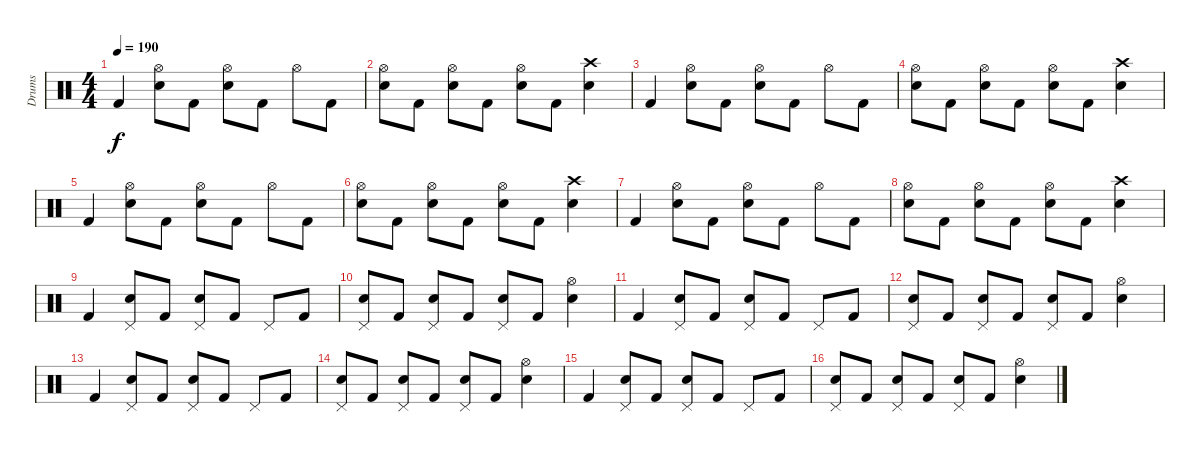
\track ("Drums" "Drums") {instrument percussion}
\staff {score}
\articulation defaults
\ts (4 4)
\tempo 190
\clef neutral
\ks c "Kick (hit) 2".4{dy f}
("Hi-Hat (open)" "Snare (hit) 2").8 "Kick (hit) 2".8 ("Hi-Hat (open)" "Snare (hit) 2").8 "Kick (hit) 2".8 "Hi-Hat (open)".8 "Kick (hit) 2".8 |
("Hi-Hat (open)" "Snare (hit) 2").8 "Kick (hit) 2".8 ("Hi-Hat (open)" "Snare (hit) 2").8 "Kick (hit) 2".8 ("Hi-Hat (open)" "Snare (hit) 2").8 "Kick (hit) 2".8 ("Crash high (hit)" "Snare (hit) 2").4 |
"Kick (hit) 2".4 ("Hi-Hat (open)" "Snare (hit) 2").8 "Kick (hit) 2".8 ("Hi-Hat (open)" "Snare (hit) 2").8 "Kick (hit) 2".8 "Hi-Hat (open)".8 "Kick (hit) 2".8 |
("Hi-Hat (open)" "Snare (hit) 2").8 "Kick (hit) 2".8 ("Hi-Hat (open)" "Snare (hit) 2").8 "Kick (hit) 2".8 ("Hi-Hat (open)" "Snare (hit) 2").8 "Kick (hit) 2".8 ("Crash high (hit)" "Snare (hit) 2").4 |
"Kick (hit) 2".4 ("Hi-Hat (open)" "Snare (hit) 2").8 "Kick (hit) 2".8 ("Hi-Hat (open)" "Snare (hit) 2").8 "Kick (hit) 2".8 "Hi-Hat (open)".8 "Kick (hit) 2".8 |
("Hi-Hat (open)" "Snare (hit) 2").8 "Kick (hit) 2".8 ("Hi-Hat (open)" "Snare (hit) 2").8 "Kick (hit) 2".8 ("Hi-Hat (open)" "Snare (hit) 2").8 "Kick (hit) 2".8 ("Crash high (hit)" "Snare (hit) 2").4 |
"Kick (hit) 2".4 ("Hi-Hat (open)" "Snare (hit) 2").8 "Kick (hit) 2".8 ("Hi-Hat (open)" "Snare (hit) 2").8 "Kick (hit) 2".8 "Hi-Hat (open)".8 "Kick (hit) 2".8 |
("Hi-Hat (open)" "Snare (hit) 2").8 "Kick (hit) 2".8 ("Hi-Hat (open)" "Snare (hit) 2").8 "Kick (hit) 2".8 ("Hi-Hat (open)" "Snare (hit) 2").8 "Kick (hit) 2".8 ("Crash high (hit)" "Snare (hit) 2").4 |
"Kick (hit) 2".4 ("Pedal Hi-Hat (hit)" "Snare (hit) 2").8 "Kick (hit) 2".8 ("Pedal Hi-Hat (hit)" "Snare (hit) 2").8 "Kick (hit) 2".8 "Pedal Hi-Hat (hit)".8 "Kick (hit) 2".8 |
("Pedal Hi-Hat (hit)" "Snare (hit) 2").8 "Kick (hit) 2".8 ("Pedal Hi-Hat (hit)" "Snare (hit) 2").8 "Kick (hit) 2".8 ("Pedal Hi-Hat (hit)" "Snare (hit) 2").8 "Kick (hit) 2".8 ("Hi-Hat (open)" "Snare (hit) 2").4 |
"Kick (hit) 2".4 ("Pedal Hi-Hat (hit)" "Snare (hit) 2").8 "Kick (hit) 2".8 ("Pedal Hi-Hat (hit)" "Snare (hit) 2").8 "Kick (hit) 2".8 "Pedal Hi-Hat (hit)".8 "Kick (hit) 2".8 |
("Pedal Hi-Hat (hit)" "Snare (hit) 2").8 "Kick (hit) 2".8 ("Pedal Hi-Hat (hit)" "Snare (hit) 2").8 "Kick (hit) 2".8 ("Pedal Hi-Hat (hit)" "Snare (hit) 2").8 "Kick (hit) 2".8 ("Hi-Hat (open)" "Snare (hit) 2").4 |
"Kick (hit) 2".4 ("Pedal Hi-Hat (hit)" "Snare (hit) 2").8 "Kick (hit) 2".8 ("Pedal Hi-Hat (hit)" "Snare (hit) 2").8 "Kick (hit) 2".8 "Pedal Hi-Hat (hit)".8 "Kick (hit) 2".8 |
("Pedal Hi-Hat (hit)" "Snare (hit) 2").8 "Kick (hit) 2".8 ("Pedal Hi-Hat (hit)" "Snare (hit) 2").8 "Kick (hit) 2".8 ("Pedal Hi-Hat (hit)" "Snare (hit) 2").8 "Kick (hit) 2".8 ("Hi-Hat (open)" "Snare (hit) 2").4 |
"Kick (hit) 2".4 ("Pedal Hi-Hat (hit)" "Snare (hit) 2").8 "Kick (hit) 2".8 ("Pedal Hi-Hat (hit)" "Snare (hit) 2").8 "Kick (hit) 2".8 "Pedal Hi-Hat (hit)".8 "Kick (hit) 2".8 |
("Pedal Hi-Hat (hit)" "Snare (hit) 2").8 "Kick (hit) 2".8 ("Pedal Hi-Hat (hit)" "Snare (hit) 2").8 "Kick (hit) 2".8 ("Pedal Hi-Hat (hit)" "Snare (hit) 2").8 "Kick (hit) 2".8 ("Hi-Hat (open)" "Snare (hit) 2").4
